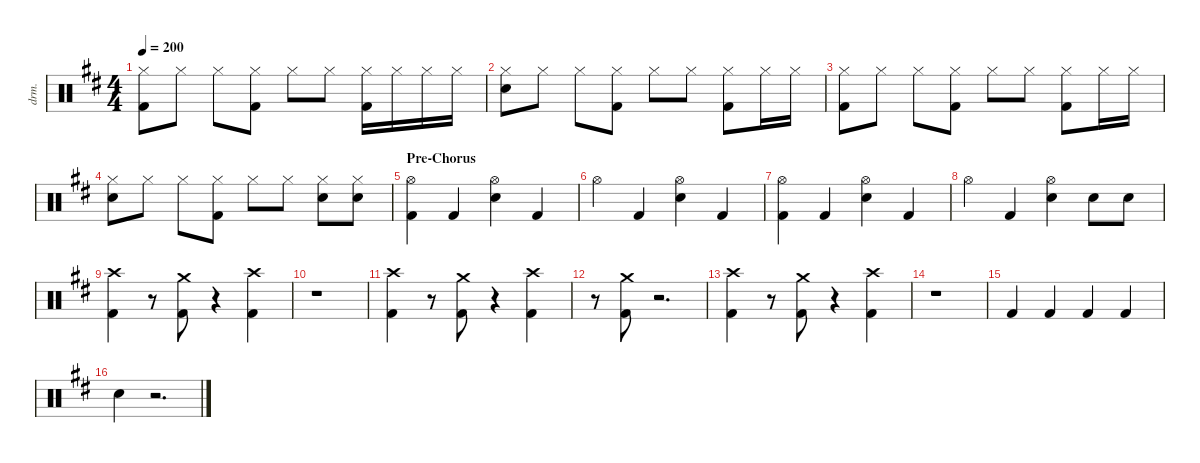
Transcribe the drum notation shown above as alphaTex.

\defaultSystemsLayout 4
\hideDynamics
\bracketExtendMode nobrackets
\otherSystemsTrackNameOrientation horizontal
\track ("Drums" "drm.") {instrument percussion}
\staff {score}
\articulation defaults
\ts (4 4)
\tempo 200
\clef neutral
\ks d
("Kick (hit) 2"{acc forcenatural} "Hi-Hat (closed)"{acc #}).8{dy ff beam Down} "Hi-Hat (closed)"{acc #}.8{beam Down} "Hi-Hat (closed)"{acc #}.8{beam Down} ("Kick (hit) 2"{acc forcenatural} "Hi-Hat (closed)"{acc #}).8{beam Down} "Hi-Hat (closed)"{acc #}.8{beam Down} "Hi-Hat (closed)"{acc #}.8{beam Down} ("Kick (hit) 2"{acc forcenatural} "Hi-Hat (closed)"{acc #}).16{beam Down} "Hi-Hat (closed)"{acc #}.16{beam Down} "Hi-Hat (closed)"{acc #}.16{beam Down} "Hi-Hat (closed)"{acc #}.16{beam Down} |
("Snare (hit) 2"{acc forcenatural} "Hi-Hat (closed)"{acc #}).8{beam Down} "Hi-Hat (closed)"{acc #}.8{beam Down} "Hi-Hat (closed)"{acc #}.8{beam Down} ("Hi-Hat (closed)"{acc #} "Kick (hit) 2"{acc forcenatural}).8{beam Down} "Hi-Hat (closed)"{acc #}.8{beam Down} "Hi-Hat (closed)"{acc #}.8{beam Down} ("Hi-Hat (closed)"{acc #} "Kick (hit) 2"{acc forcenatural}).8{beam Down} "Hi-Hat (closed)"{acc #}.16{beam Down} "Hi-Hat (closed)"{acc #}.16{beam Down} |
("Kick (hit) 2"{acc forcenatural} "Hi-Hat (closed)"{acc #}).8{beam Down} "Hi-Hat (closed)"{acc #}.8{beam Down} "Hi-Hat (closed)"{acc #}.8{beam Down} ("Kick (hit) 2"{acc forcenatural} "Hi-Hat (closed)"{acc #}).8{beam Down} "Hi-Hat (closed)"{acc #}.8{beam Down} "Hi-Hat (closed)"{acc #}.8{beam Down} ("Hi-Hat (closed)"{acc #} "Kick (hit) 2"{acc forcenatural}).8{beam Down} "Hi-Hat (closed)"{acc #}.16{beam Down} "Hi-Hat (closed)"{acc #}.16{beam Down} |
("Snare (hit) 2"{acc forcenatural} "Hi-Hat (closed)"{acc #}).8{beam Down} "Hi-Hat (closed)"{acc #}.8{beam Down} "Hi-Hat (closed)"{acc #}.8{beam Down} ("Kick (hit) 2"{acc forcenatural} "Hi-Hat (closed)"{acc #}).8{beam Down} "Hi-Hat (closed)"{acc #}.8{beam Down} "Hi-Hat (closed)"{acc #}.8{beam Down} ("Snare (hit) 2"{acc forcenatural} "Hi-Hat (closed)"{acc #}).8{beam Down} ("Hi-Hat (closed)"{acc #} "Snare (hit) 2"{acc forcenatural}).8{beam Down} |
\section ("" "Pre-Chorus")
("Kick (hit) 2"{acc forcenatural} "Hi-Hat (open)"{acc #}).4{beam Down} "Kick (hit) 2"{acc forcenatural}.4{beam Up} ("Snare (hit) 2"{acc forcenatural} "Hi-Hat (open)"{acc #}).4{beam Down} "Kick (hit) 2"{acc forcenatural}.4{beam Up} |
"Hi-Hat (open)"{acc #}.4{beam Down} "Kick (hit) 2"{acc forcenatural}.4{beam Up} ("Snare (hit) 2"{acc forcenatural} "Hi-Hat (open)"{acc #}).4{beam Down} "Kick (hit) 2"{acc forcenatural}.4{beam Up} |
("Kick (hit) 2"{acc forcenatural} "Hi-Hat (open)"{acc #}).4{beam Down} "Kick (hit) 2"{acc forcenatural}.4{beam Up} ("Snare (hit) 2"{acc forcenatural} "Hi-Hat (open)"{acc #}).4{beam Down} "Kick (hit) 2"{acc forcenatural}.4{beam Up} |
"Hi-Hat (open)"{acc #}.4{beam Down} "Kick (hit) 2"{acc forcenatural}.4{beam Up} ("Snare (hit) 2"{acc forcenatural} "Hi-Hat (open)"{acc #}).4{beam Down} "Snare (hit) 2"{acc forcenatural}.8{beam Down} "Snare (hit) 2"{acc forcenatural}.8{beam Down} |
("Kick (hit) 2"{acc forcenatural} "Crash high (hit)"{acc #}).4{beam Down} r.8{beam Down} ("Kick (hit) 2"{acc forcenatural} "Crash medium (hit)"{acc forcenatural}).8{beam Down} r.4{beam Down} ("Kick (hit) 2"{acc forcenatural} "Crash high (hit)"{acc #}).4{beam Down} |
r.1{beam Down} |
("Kick (hit) 2"{acc forcenatural} "Crash high (hit)"{acc #}).4{beam Down} r.8{beam Down} ("Kick (hit) 2"{acc forcenatural} "Crash medium (hit)"{acc forcenatural}).8{beam Down} r.4{beam Down} ("Kick (hit) 2"{acc forcenatural} "Crash high (hit)"{acc #}).4{beam Down} |
r.8{beam Down} ("Kick (hit) 2"{acc forcenatural} "Crash medium (hit)"{acc forcenatural}).8{beam Down} r.2{d beam Down} |
("Kick (hit) 2"{acc forcenatural} "Crash high (hit)"{acc #}).4{beam Down} r.8{beam Down} ("Kick (hit) 2"{acc forcenatural} "Crash medium (hit)"{acc forcenatural}).8{beam Down} r.4{beam Down} ("Kick (hit) 2"{acc forcenatural} "Crash high (hit)"{acc #}).4{beam Down} |
r.1{beam Down} |
"Kick (hit) 2"{acc forcenatural}.4{beam Up} "Kick (hit) 2"{acc forcenatural}.4{beam Up} "Kick (hit) 2"{acc forcenatural}.4{beam Up} "Kick (hit) 2"{acc forcenatural}.4{beam Up} |
"Snare (hit) 2"{acc forcenatural}.4{beam Down} r.2{d beam Down}
